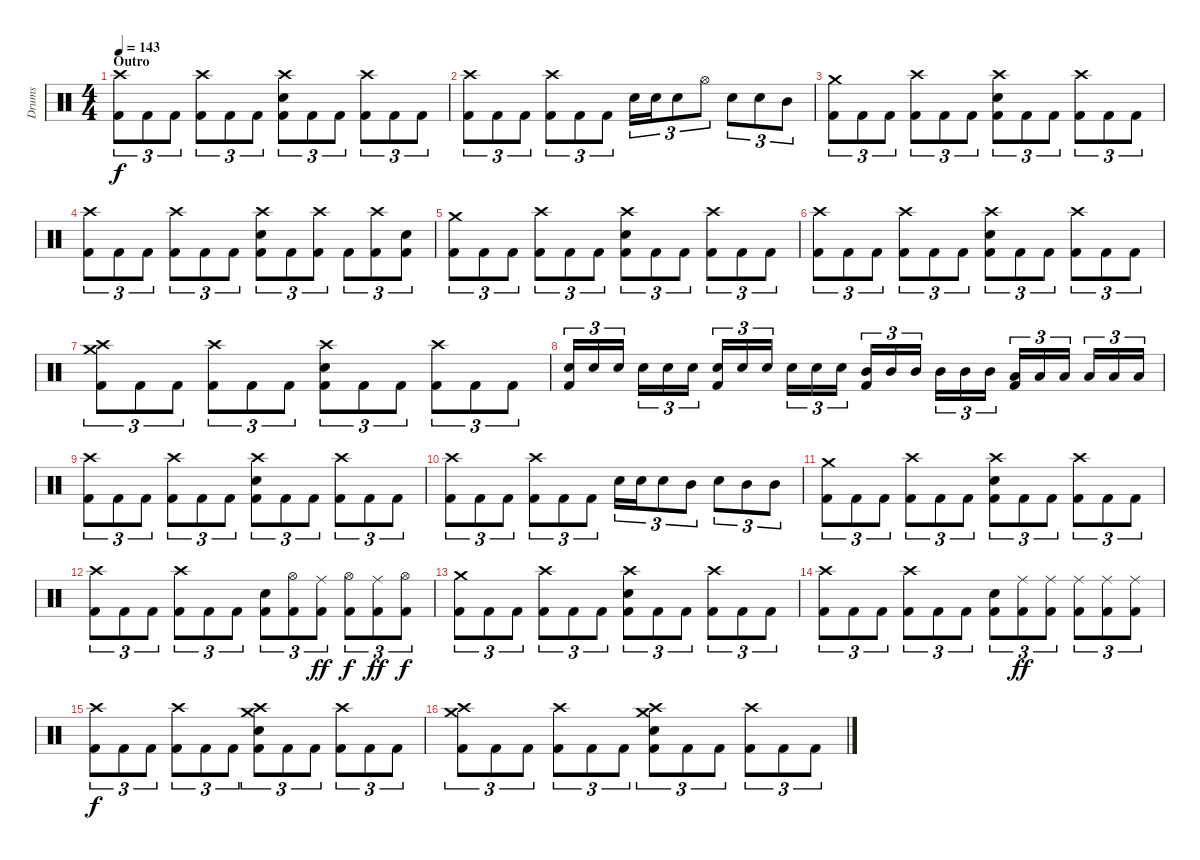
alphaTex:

\track ("Drums" "Drums") {instrument percussion}
\staff {score}
\articulation defaults
\ts (4 4)
\section ("" "Outro")
\tempo 143
\clef neutral
\ks c
("Crash high (hit)" "Kick (hit) 2").8{tu (3 2) dy f} "Kick (hit) 2".8{tu (3 2)} "Kick (hit) 2".8{tu (3 2)} ("Crash high (hit)" "Kick (hit) 2").8{tu (3 2)} "Kick (hit) 2".8{tu (3 2)} "Kick (hit) 2".8{tu (3 2)} ("Crash high (hit)" "Snare (hit) 2" "Kick (hit) 2").8{tu (3 2)} "Kick (hit) 2".8{tu (3 2)} "Kick (hit) 2".8{tu (3 2)} ("Crash high (hit)" "Kick (hit) 2").8{tu (3 2)} "Kick (hit) 2".8{tu (3 2)} "Kick (hit) 2".8{tu (3 2)} |
("Crash high (hit)" "Kick (hit) 2").8{tu (3 2)} "Kick (hit) 2".8{tu (3 2)} "Kick (hit) 2".8{tu (3 2)} ("Crash high (hit)" "Kick (hit) 2").8{tu (3 2)} "Kick (hit) 2".8{tu (3 2)} "Kick (hit) 2".8{tu (3 2)} "Snare (hit) 2".16{tu (3 2)} "Snare (hit) 2".16{tu (3 2)} "Snare (hit) 2".8{tu (3 2)} "Hi-Hat (open)".8{tu (3 2)} "Snare (hit) 2".8{tu (3 2)} "Snare (hit) 2".8{tu (3 2)} "Mid Tom (hit)".8{tu (3 2)} |
("Crash medium (hit)" "Kick (hit) 2").8{tu (3 2)} "Kick (hit) 2".8{tu (3 2)} "Kick (hit) 2".8{tu (3 2)} ("Crash high (hit)" "Kick (hit) 2").8{tu (3 2)} "Kick (hit) 2".8{tu (3 2)} "Kick (hit) 2".8{tu (3 2)} ("Crash high (hit)" "Snare (hit) 2" "Kick (hit) 2").8{tu (3 2)} "Kick (hit) 2".8{tu (3 2)} "Kick (hit) 2".8{tu (3 2)} ("Crash high (hit)" "Kick (hit) 2").8{tu (3 2)} "Kick (hit) 2".8{tu (3 2)} "Kick (hit) 2".8{tu (3 2)} |
("Crash high (hit)" "Kick (hit) 2").8{tu (3 2)} "Kick (hit) 2".8{tu (3 2)} "Kick (hit) 2".8{tu (3 2)} ("Crash high (hit)" "Kick (hit) 2").8{tu (3 2)} "Kick (hit) 2".8{tu (3 2)} "Kick (hit) 2".8{tu (3 2)} ("Crash high (hit)" "Snare (hit) 2" "Kick (hit) 2").8{tu (3 2)} "Kick (hit) 2".8{tu (3 2)} ("Crash high (hit)" "Kick (hit) 2").8{tu (3 2)} "Kick (hit) 2".8{tu (3 2)} ("Crash high (hit)" "Kick (hit) 2").8{tu (3 2)} ("Snare (hit) 2" "Kick (hit) 2").8{tu (3 2)} |
("Crash medium (hit)" "Kick (hit) 2").8{tu (3 2)} "Kick (hit) 2".8{tu (3 2)} "Kick (hit) 2".8{tu (3 2)} ("Crash high (hit)" "Kick (hit) 2").8{tu (3 2)} "Kick (hit) 2".8{tu (3 2)} "Kick (hit) 2".8{tu (3 2)} ("Crash high (hit)" "Snare (hit) 2" "Kick (hit) 2").8{tu (3 2)} "Kick (hit) 2".8{tu (3 2)} "Kick (hit) 2".8{tu (3 2)} ("Crash high (hit)" "Kick (hit) 2").8{tu (3 2)} "Kick (hit) 2".8{tu (3 2)} "Kick (hit) 2".8{tu (3 2)} |
("Crash high (hit)" "Kick (hit) 2").8{tu (3 2)} "Kick (hit) 2".8{tu (3 2)} "Kick (hit) 2".8{tu (3 2)} ("Crash high (hit)" "Kick (hit) 2").8{tu (3 2)} "Kick (hit) 2".8{tu (3 2)} "Kick (hit) 2".8{tu (3 2)} ("Crash high (hit)" "Snare (hit) 2" "Kick (hit) 2").8{tu (3 2)} "Kick (hit) 2".8{tu (3 2)} "Kick (hit) 2".8{tu (3 2)} ("Crash high (hit)" "Kick (hit) 2").8{tu (3 2)} "Kick (hit) 2".8{tu (3 2)} "Kick (hit) 2".8{tu (3 2)} |
("Crash medium (hit)" "Crash high (hit)" "Kick (hit) 2").8{tu (3 2)} "Kick (hit) 2".8{tu (3 2)} "Kick (hit) 2".8{tu (3 2)} ("Crash high (hit)" "Kick (hit) 2").8{tu (3 2)} "Kick (hit) 2".8{tu (3 2)} "Kick (hit) 2".8{tu (3 2)} ("Crash high (hit)" "Snare (hit) 2" "Kick (hit) 2").8{tu (3 2)} "Kick (hit) 2".8{tu (3 2)} "Kick (hit) 2".8{tu (3 2)} ("Crash high (hit)" "Kick (hit) 2").8{tu (3 2)} "Kick (hit) 2".8{tu (3 2)} "Kick (hit) 2".8{tu (3 2)} |
("Snare (hit) 2" "Kick (hit) 2").16{tu (3 2)} "Snare (hit) 2".16{tu (3 2)} "Snare (hit) 2".16{tu (3 2) beam splitsecondary} "Snare (hit) 2".16{tu (3 2)} "Snare (hit) 2".16{tu (3 2)} "Snare (hit) 2".16{tu (3 2)} ("Snare (hit) 2" "Kick (hit) 2").16{tu (3 2)} "Snare (hit) 2".16{tu (3 2)} "Snare (hit) 2".16{tu (3 2) beam splitsecondary} "Snare (hit) 2".16{tu (3 2)} "Snare (hit) 2".16{tu (3 2)} "Snare (hit) 2".16{tu (3 2)} ("Mid Tom (hit)" "Kick (hit) 2").16{tu (3 2)} "Mid Tom (hit)".16{tu (3 2)} "Mid Tom (hit)".16{tu (3 2) beam splitsecondary} "Mid Tom (hit)".16{tu (3 2)} "Mid Tom (hit)".16{tu (3 2)} "Mid Tom (hit)".16{tu (3 2)} ("Low Tom (hit)" "Kick (hit) 2").16{tu (3 2)} "Low Tom (hit)".16{tu (3 2)} "Low Tom (hit)".16{tu (3 2) beam splitsecondary} "Low Tom (hit)".16{tu (3 2)} "Low Tom (hit)".16{tu (3 2)} "Low Tom (hit)".16{tu (3 2)} |
("Crash high (hit)" "Kick (hit) 2").8{tu (3 2)} "Kick (hit) 2".8{tu (3 2)} "Kick (hit) 2".8{tu (3 2)} ("Crash high (hit)" "Kick (hit) 2").8{tu (3 2)} "Kick (hit) 2".8{tu (3 2)} "Kick (hit) 2".8{tu (3 2)} ("Crash high (hit)" "Snare (hit) 2" "Kick (hit) 2").8{tu (3 2)} "Kick (hit) 2".8{tu (3 2)} "Kick (hit) 2".8{tu (3 2)} ("Crash high (hit)" "Kick (hit) 2").8{tu (3 2)} "Kick (hit) 2".8{tu (3 2)} "Kick (hit) 2".8{tu (3 2)} |
("Crash high (hit)" "Kick (hit) 2").8{tu (3 2)} "Kick (hit) 2".8{tu (3 2)} "Kick (hit) 2".8{tu (3 2)} ("Crash high (hit)" "Kick (hit) 2").8{tu (3 2)} "Kick (hit) 2".8{tu (3 2)} "Kick (hit) 2".8{tu (3 2)} "Snare (hit) 2".16{tu (3 2)} "Snare (hit) 2".16{tu (3 2)} "Snare (hit) 2".8{tu (3 2)} "Mid Tom (hit)".8{tu (3 2)} "Snare (hit) 2".8{tu (3 2)} "Mid Tom (hit)".8{tu (3 2)} "Mid Tom (hit)".8{tu (3 2)} |
("Crash medium (hit)" "Kick (hit) 2").8{tu (3 2)} "Kick (hit) 2".8{tu (3 2)} "Kick (hit) 2".8{tu (3 2)} ("Crash high (hit)" "Kick (hit) 2").8{tu (3 2)} "Kick (hit) 2".8{tu (3 2)} "Kick (hit) 2".8{tu (3 2)} ("Crash high (hit)" "Snare (hit) 2" "Kick (hit) 2").8{tu (3 2)} "Kick (hit) 2".8{tu (3 2)} "Kick (hit) 2".8{tu (3 2)} ("Crash high (hit)" "Kick (hit) 2").8{tu (3 2)} "Kick (hit) 2".8{tu (3 2)} "Kick (hit) 2".8{tu (3 2)} |
("Crash high (hit)" "Kick (hit) 2").8{tu (3 2)} "Kick (hit) 2".8{tu (3 2)} "Kick (hit) 2".8{tu (3 2)} ("Crash high (hit)" "Kick (hit) 2").8{tu (3 2)} "Kick (hit) 2".8{tu (3 2)} "Kick (hit) 2".8{tu (3 2)} ("Snare (hit) 2" "Kick (hit) 2").8{tu (3 2)} ("Hi-Hat (open)" "Kick (hit) 2").8{tu (3 2)} ("Ride (middle)" "Kick (hit) 2").8{tu (3 2) dy ff} ("Hi-Hat (open)" "Kick (hit) 2").8{tu (3 2) dy f} ("Ride (middle)" "Kick (hit) 2").8{tu (3 2) dy ff} ("Hi-Hat (open)" "Kick (hit) 2").8{tu (3 2) dy f} |
("Crash medium (hit)" "Kick (hit) 2").8{tu (3 2)} "Kick (hit) 2".8{tu (3 2)} "Kick (hit) 2".8{tu (3 2)} ("Crash high (hit)" "Kick (hit) 2").8{tu (3 2)} "Kick (hit) 2".8{tu (3 2)} "Kick (hit) 2".8{tu (3 2)} ("Crash high (hit)" "Snare (hit) 2" "Kick (hit) 2").8{tu (3 2)} "Kick (hit) 2".8{tu (3 2)} "Kick (hit) 2".8{tu (3 2)} ("Crash high (hit)" "Kick (hit) 2").8{tu (3 2)} "Kick (hit) 2".8{tu (3 2)} "Kick (hit) 2".8{tu (3 2)} |
("Crash high (hit)" "Kick (hit) 2").8{tu (3 2)} "Kick (hit) 2".8{tu (3 2)} "Kick (hit) 2".8{tu (3 2)} ("Crash high (hit)" "Kick (hit) 2").8{tu (3 2)} "Kick (hit) 2".8{tu (3 2)} "Kick (hit) 2".8{tu (3 2)} ("Snare (hit) 2" "Kick (hit) 2").8{tu (3 2)} ("Ride (middle)" "Kick (hit) 2").8{tu (3 2) dy ff} ("Ride (middle)" "Kick (hit) 2").8{tu (3 2)} ("Ride (middle)" "Kick (hit) 2").8{tu (3 2)} ("Ride (middle)" "Kick (hit) 2").8{tu (3 2)} ("Ride (middle)" "Kick (hit) 2").8{tu (3 2)} |
("Crash high (hit)" "Kick (hit) 2").8{tu (3 2) dy f} "Kick (hit) 2".8{tu (3 2)} "Kick (hit) 2".8{tu (3 2)} ("Crash high (hit)" "Kick (hit) 2").8{tu (3 2)} "Kick (hit) 2".8{tu (3 2)} "Kick (hit) 2".8{tu (3 2)} ("Crash medium (hit)" "Crash high (hit)" "Snare (hit) 2" "Kick (hit) 2").8{tu (3 2)} "Kick (hit) 2".8{tu (3 2)} "Kick (hit) 2".8{tu (3 2)} ("Crash high (hit)" "Kick (hit) 2").8{tu (3 2)} "Kick (hit) 2".8{tu (3 2)} "Kick (hit) 2".8{tu (3 2)} |
("Crash medium (hit)" "Crash high (hit)" "Kick (hit) 2").8{tu (3 2)} "Kick (hit) 2".8{tu (3 2)} "Kick (hit) 2".8{tu (3 2)} ("Crash high (hit)" "Kick (hit) 2").8{tu (3 2)} "Kick (hit) 2".8{tu (3 2)} "Kick (hit) 2".8{tu (3 2)} ("Crash medium (hit)" "Crash high (hit)" "Snare (hit) 2" "Kick (hit) 2").8{tu (3 2)} "Kick (hit) 2".8{tu (3 2)} "Kick (hit) 2".8{tu (3 2)} ("Crash high (hit)" "Kick (hit) 2").8{tu (3 2)} "Kick (hit) 2".8{tu (3 2)} "Kick (hit) 2".8{tu (3 2)}
